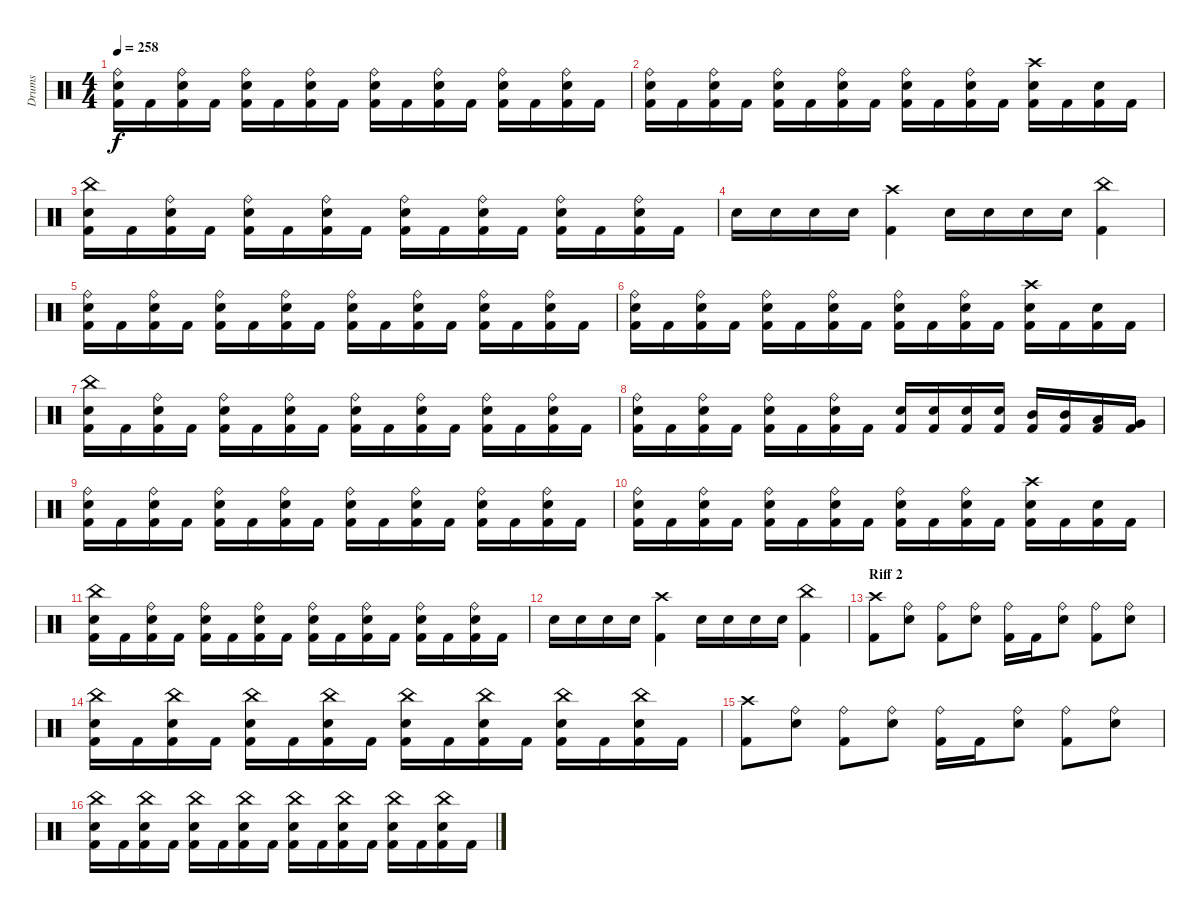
\track ("Drums" "Drums") {instrument percussion}
\staff {score}
\articulation defaults
\ts (4 4)
\tempo 258
\clef neutral
\ks c
("Kick (hit) 2" "Snare (hit) 2" "Ride (bell)").16{dy f} "Kick (hit) 2".16 ("Kick (hit) 2" "Snare (hit) 2" "Ride (bell)").16 "Kick (hit) 2".16 ("Kick (hit) 2" "Snare (hit) 2" "Ride (bell)").16 "Kick (hit) 2".16 ("Kick (hit) 2" "Snare (hit) 2" "Ride (bell)").16 "Kick (hit) 2".16 ("Kick (hit) 2" "Snare (hit) 2" "Ride (bell)").16 "Kick (hit) 2".16 ("Kick (hit) 2" "Snare (hit) 2" "Ride (bell)").16 "Kick (hit) 2".16 ("Kick (hit) 2" "Snare (hit) 2" "Ride (bell)").16 "Kick (hit) 2".16 ("Kick (hit) 2" "Snare (hit) 2" "Ride (bell)").16 "Kick (hit) 2".16 |
("Kick (hit) 2" "Snare (hit) 2" "Ride (bell)").16 "Kick (hit) 2".16 ("Kick (hit) 2" "Snare (hit) 2" "Ride (bell)").16 "Kick (hit) 2".16 ("Kick (hit) 2" "Snare (hit) 2" "Ride (bell)").16 "Kick (hit) 2".16 ("Kick (hit) 2" "Snare (hit) 2" "Ride (bell)").16 "Kick (hit) 2".16 ("Kick (hit) 2" "Snare (hit) 2" "Ride (bell)").16 "Kick (hit) 2".16 ("Kick (hit) 2" "Snare (hit) 2" "Ride (bell)").16 "Kick (hit) 2".16 ("Kick (hit) 2" "Snare (hit) 2" "Crash high (hit)").16 "Kick (hit) 2".16 ("Kick (hit) 2" "Snare (hit) 2").16 "Kick (hit) 2".16 |
("Kick (hit) 2" "Snare (hit) 2" "China (hit)").16 "Kick (hit) 2".16 ("Kick (hit) 2" "Snare (hit) 2" "Ride (bell)").16 "Kick (hit) 2".16 ("Kick (hit) 2" "Snare (hit) 2" "Ride (bell)").16 "Kick (hit) 2".16 ("Kick (hit) 2" "Snare (hit) 2" "Ride (bell)").16 "Kick (hit) 2".16 ("Kick (hit) 2" "Snare (hit) 2" "Ride (bell)").16 "Kick (hit) 2".16 ("Kick (hit) 2" "Snare (hit) 2" "Ride (bell)").16 "Kick (hit) 2".16 ("Kick (hit) 2" "Snare (hit) 2" "Ride (bell)").16 "Kick (hit) 2".16 ("Kick (hit) 2" "Snare (hit) 2" "Ride (bell)").16 "Kick (hit) 2".16 |
"Snare (hit) 2".16 "Snare (hit) 2".16 "Snare (hit) 2".16 "Snare (hit) 2".16 ("Kick (hit) 2" "Crash high (hit)").4 "Snare (hit) 2".16 "Snare (hit) 2".16 "Snare (hit) 2".16 "Snare (hit) 2".16 ("Kick (hit) 2" "China (hit)").4 |
("Kick (hit) 2" "Snare (hit) 2" "Ride (bell)").16 "Kick (hit) 2".16 ("Kick (hit) 2" "Snare (hit) 2" "Ride (bell)").16 "Kick (hit) 2".16 ("Kick (hit) 2" "Snare (hit) 2" "Ride (bell)").16 "Kick (hit) 2".16 ("Kick (hit) 2" "Snare (hit) 2" "Ride (bell)").16 "Kick (hit) 2".16 ("Kick (hit) 2" "Snare (hit) 2" "Ride (bell)").16 "Kick (hit) 2".16 ("Kick (hit) 2" "Snare (hit) 2" "Ride (bell)").16 "Kick (hit) 2".16 ("Kick (hit) 2" "Snare (hit) 2" "Ride (bell)").16 "Kick (hit) 2".16 ("Kick (hit) 2" "Snare (hit) 2" "Ride (bell)").16 "Kick (hit) 2".16 |
("Kick (hit) 2" "Snare (hit) 2" "Ride (bell)").16 "Kick (hit) 2".16 ("Kick (hit) 2" "Snare (hit) 2" "Ride (bell)").16 "Kick (hit) 2".16 ("Kick (hit) 2" "Snare (hit) 2" "Ride (bell)").16 "Kick (hit) 2".16 ("Kick (hit) 2" "Snare (hit) 2" "Ride (bell)").16 "Kick (hit) 2".16 ("Kick (hit) 2" "Snare (hit) 2" "Ride (bell)").16 "Kick (hit) 2".16 ("Kick (hit) 2" "Snare (hit) 2" "Ride (bell)").16 "Kick (hit) 2".16 ("Kick (hit) 2" "Snare (hit) 2" "Crash high (hit)").16 "Kick (hit) 2".16 ("Kick (hit) 2" "Snare (hit) 2").16 "Kick (hit) 2".16 |
("Kick (hit) 2" "Snare (hit) 2" "China (hit)").16 "Kick (hit) 2".16 ("Kick (hit) 2" "Snare (hit) 2" "Ride (bell)").16 "Kick (hit) 2".16 ("Kick (hit) 2" "Snare (hit) 2" "Ride (bell)").16 "Kick (hit) 2".16 ("Kick (hit) 2" "Snare (hit) 2" "Ride (bell)").16 "Kick (hit) 2".16 ("Kick (hit) 2" "Snare (hit) 2" "Ride (bell)").16 "Kick (hit) 2".16 ("Kick (hit) 2" "Snare (hit) 2" "Ride (bell)").16 "Kick (hit) 2".16 ("Kick (hit) 2" "Snare (hit) 2" "Ride (bell)").16 "Kick (hit) 2".16 ("Kick (hit) 2" "Snare (hit) 2" "Ride (bell)").16 "Kick (hit) 2".16 |
("Kick (hit) 2" "Snare (hit) 2" "Ride (bell)").16 "Kick (hit) 2".16 ("Kick (hit) 2" "Snare (hit) 2" "Ride (bell)").16 "Kick (hit) 2".16 ("Kick (hit) 2" "Snare (hit) 2" "Ride (bell)").16 "Kick (hit) 2".16 ("Kick (hit) 2" "Snare (hit) 2" "Ride (bell)").16 "Kick (hit) 2".16 ("Kick (hit) 2" "Snare (hit) 2").16 ("Kick (hit) 2" "Snare (hit) 2").16 ("Kick (hit) 2" "Snare (hit) 2").16 ("Kick (hit) 2" "Snare (hit) 2").16 ("Kick (hit) 2" "Mid Tom (hit)").16 ("Kick (hit) 2" "Mid Tom (hit)").16 ("Kick (hit) 2" "Low Tom (hit)").16 ("Kick (hit) 2" "Very Low Tom (hit)").16 |
("Kick (hit) 2" "Snare (hit) 2" "Ride (bell)").16 "Kick (hit) 2".16 ("Kick (hit) 2" "Snare (hit) 2" "Ride (bell)").16 "Kick (hit) 2".16 ("Kick (hit) 2" "Snare (hit) 2" "Ride (bell)").16 "Kick (hit) 2".16 ("Kick (hit) 2" "Snare (hit) 2" "Ride (bell)").16 "Kick (hit) 2".16 ("Kick (hit) 2" "Snare (hit) 2" "Ride (bell)").16 "Kick (hit) 2".16 ("Kick (hit) 2" "Snare (hit) 2" "Ride (bell)").16 "Kick (hit) 2".16 ("Kick (hit) 2" "Snare (hit) 2" "Ride (bell)").16 "Kick (hit) 2".16 ("Kick (hit) 2" "Snare (hit) 2" "Ride (bell)").16 "Kick (hit) 2".16 |
("Kick (hit) 2" "Snare (hit) 2" "Ride (bell)").16 "Kick (hit) 2".16 ("Kick (hit) 2" "Snare (hit) 2" "Ride (bell)").16 "Kick (hit) 2".16 ("Kick (hit) 2" "Snare (hit) 2" "Ride (bell)").16 "Kick (hit) 2".16 ("Kick (hit) 2" "Snare (hit) 2" "Ride (bell)").16 "Kick (hit) 2".16 ("Kick (hit) 2" "Snare (hit) 2" "Ride (bell)").16 "Kick (hit) 2".16 ("Kick (hit) 2" "Snare (hit) 2" "Ride (bell)").16 "Kick (hit) 2".16 ("Kick (hit) 2" "Snare (hit) 2" "Crash high (hit)").16 "Kick (hit) 2".16 ("Kick (hit) 2" "Snare (hit) 2").16 "Kick (hit) 2".16 |
("Kick (hit) 2" "Snare (hit) 2" "China (hit)").16 "Kick (hit) 2".16 ("Kick (hit) 2" "Snare (hit) 2" "Ride (bell)").16 "Kick (hit) 2".16 ("Kick (hit) 2" "Snare (hit) 2" "Ride (bell)").16 "Kick (hit) 2".16 ("Kick (hit) 2" "Snare (hit) 2" "Ride (bell)").16 "Kick (hit) 2".16 ("Kick (hit) 2" "Snare (hit) 2" "Ride (bell)").16 "Kick (hit) 2".16 ("Kick (hit) 2" "Snare (hit) 2" "Ride (bell)").16 "Kick (hit) 2".16 ("Kick (hit) 2" "Snare (hit) 2" "Ride (bell)").16 "Kick (hit) 2".16 ("Kick (hit) 2" "Snare (hit) 2" "Ride (bell)").16 "Kick (hit) 2".16 |
"Snare (hit) 2".16 "Snare (hit) 2".16 "Snare (hit) 2".16 "Snare (hit) 2".16 ("Kick (hit) 2" "Crash high (hit)").4 "Snare (hit) 2".16 "Snare (hit) 2".16 "Snare (hit) 2".16 "Snare (hit) 2".16 ("Kick (hit) 2" "China (hit)").4 |
\section ("" "Riff 2")
("Kick (hit) 2" "Crash high (hit)").8 ("Snare (hit) 2" "Ride (bell)").8 ("Kick (hit) 2" "Ride (bell)").8 ("Snare (hit) 2" "Ride (bell)").8 ("Kick (hit) 2" "Ride (bell)").16 "Kick (hit) 2".16 ("Snare (hit) 2" "Ride (bell)").8 ("Kick (hit) 2" "Ride (bell)").8 ("Snare (hit) 2" "Ride (bell)").8 |
("Kick (hit) 2" "Snare (hit) 2" "China (hit)").16 "Kick (hit) 2".16 ("Kick (hit) 2" "Snare (hit) 2" "China (hit)").16 "Kick (hit) 2".16 ("Kick (hit) 2" "Snare (hit) 2" "China (hit)").16 "Kick (hit) 2".16 ("Kick (hit) 2" "Snare (hit) 2" "China (hit)").16 "Kick (hit) 2".16 ("Kick (hit) 2" "Snare (hit) 2" "China (hit)").16 "Kick (hit) 2".16 ("Kick (hit) 2" "Snare (hit) 2" "China (hit)").16 "Kick (hit) 2".16 ("Kick (hit) 2" "Snare (hit) 2" "China (hit)").16 "Kick (hit) 2".16 ("Kick (hit) 2" "Snare (hit) 2" "China (hit)").16 "Kick (hit) 2".16 |
("Kick (hit) 2" "Crash high (hit)").8 ("Snare (hit) 2" "Ride (bell)").8 ("Kick (hit) 2" "Ride (bell)").8 ("Snare (hit) 2" "Ride (bell)").8 ("Kick (hit) 2" "Ride (bell)").16 "Kick (hit) 2".16 ("Snare (hit) 2" "Ride (bell)").8 ("Kick (hit) 2" "Ride (bell)").8 ("Snare (hit) 2" "Ride (bell)").8 |
("Kick (hit) 2" "Snare (hit) 2" "China (hit)").16 "Kick (hit) 2".16 ("Kick (hit) 2" "Snare (hit) 2" "China (hit)").16 "Kick (hit) 2".16 ("Kick (hit) 2" "Snare (hit) 2" "China (hit)").16 "Kick (hit) 2".16 ("Kick (hit) 2" "Snare (hit) 2" "China (hit)").16 "Kick (hit) 2".16 ("Kick (hit) 2" "Snare (hit) 2" "China (hit)").16 "Kick (hit) 2".16 ("Kick (hit) 2" "Snare (hit) 2" "China (hit)").16 "Kick (hit) 2".16 ("Kick (hit) 2" "Snare (hit) 2" "China (hit)").16 "Kick (hit) 2".16 ("Kick (hit) 2" "Snare (hit) 2" "China (hit)").16 "Kick (hit) 2".16
